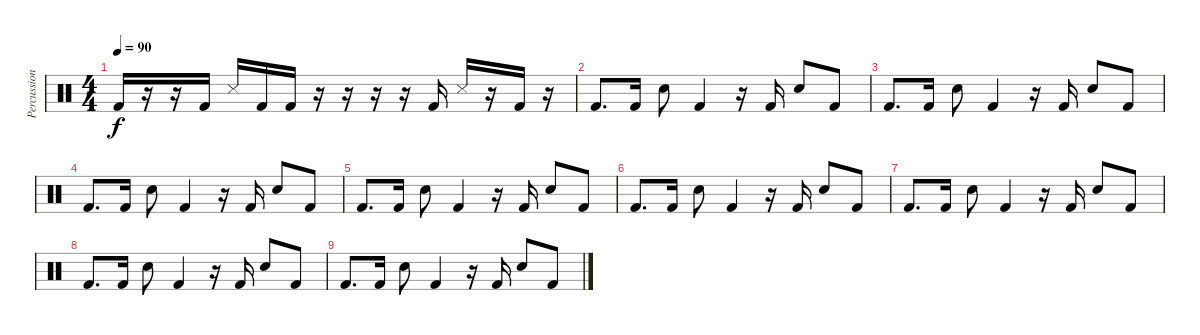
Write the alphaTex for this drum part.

\track ("Percussion" "Percussion") {instrument percussion}
\staff {score}
\articulation defaults
\ts (4 4)
\tempo 90
\clef neutral
\ks c "Kick (hit) 2".16{dy f}
r.16 r.16 "Kick (hit) 2".16 "Snare (side stick) 3".16 "Kick (hit) 2".16 "Kick (hit) 2".16 r.16 r.16 r.16 r.16 "Kick (hit) 2".16 "Snare (side stick) 3".16 r.16 "Kick (hit) 2".16 r.16 |
"Kick (hit) 2".8{d} "Kick (hit) 2".16 "Electric Snare (hit)".8 "Kick (hit) 2".4 r.16 "Kick (hit) 2".16 "Electric Snare (hit)".8 "Kick (hit) 2".8 |
"Kick (hit) 2".8{d} "Kick (hit) 2".16 "Electric Snare (hit)".8 "Kick (hit) 2".4 r.16 "Kick (hit) 2".16 "Electric Snare (hit)".8 "Kick (hit) 2".8 |
"Kick (hit) 2".8{d} "Kick (hit) 2".16 "Electric Snare (hit)".8 "Kick (hit) 2".4 r.16 "Kick (hit) 2".16 "Electric Snare (hit)".8 "Kick (hit) 2".8 |
"Kick (hit) 2".8{d} "Kick (hit) 2".16 "Electric Snare (hit)".8 "Kick (hit) 2".4 r.16 "Kick (hit) 2".16 "Electric Snare (hit)".8 "Kick (hit) 2".8 |
"Kick (hit) 2".8{d} "Kick (hit) 2".16 "Electric Snare (hit)".8 "Kick (hit) 2".4 r.16 "Kick (hit) 2".16 "Electric Snare (hit)".8 "Kick (hit) 2".8 |
"Kick (hit) 2".8{d} "Kick (hit) 2".16 "Electric Snare (hit)".8 "Kick (hit) 2".4 r.16 "Kick (hit) 2".16 "Electric Snare (hit)".8 "Kick (hit) 2".8 |
"Kick (hit) 2".8{d} "Kick (hit) 2".16 "Electric Snare (hit)".8 "Kick (hit) 2".4 r.16 "Kick (hit) 2".16 "Electric Snare (hit)".8 "Kick (hit) 2".8 |
"Kick (hit) 2".8{d} "Kick (hit) 2".16 "Electric Snare (hit)".8 "Kick (hit) 2".4 r.16 "Kick (hit) 2".16 "Electric Snare (hit)".8 "Kick (hit) 2".8
